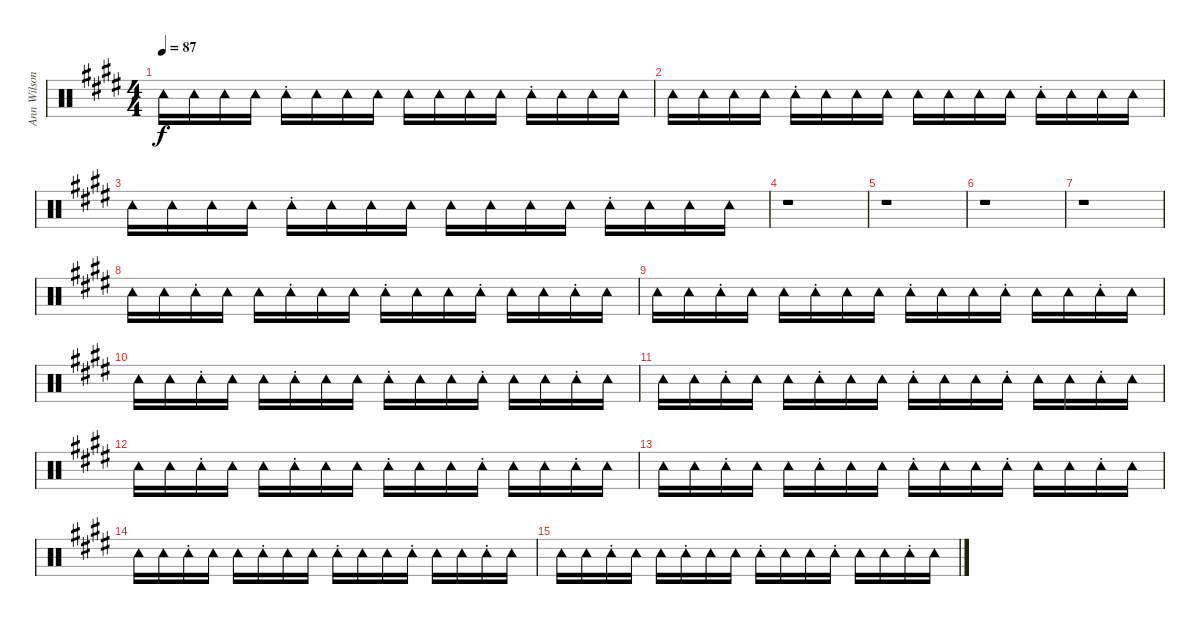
\track ("Ann Wilson Tambrine" "Ann Wilson") {instrument percussion}
\staff {score}
\articulation defaults
\ts (4 4)
\tempo 87
\clef neutral
\ks e "Tambourine (hit)".16{dy f} "Tambourine (hit)".16 "Tambourine (hit)".16 "Tambourine (hit)".16 "Tambourine (hit)"{st}.16 "Tambourine (hit)".16 "Tambourine (hit)".16 "Tambourine (hit)".16 "Tambourine (hit)".16 "Tambourine (hit)".16 "Tambourine (hit)".16 "Tambourine (hit)".16 "Tambourine (hit)"{st}.16 "Tambourine (hit)".16 "Tambourine (hit)".16 "Tambourine (hit)".16
|
"Tambourine (hit)".16 "Tambourine (hit)".16 "Tambourine (hit)".16 "Tambourine (hit)".16 "Tambourine (hit)"{st}.16 "Tambourine (hit)".16 "Tambourine (hit)".16 "Tambourine (hit)".16 "Tambourine (hit)".16 "Tambourine (hit)".16 "Tambourine (hit)".16 "Tambourine (hit)".16 "Tambourine (hit)"{st}.16 "Tambourine (hit)".16 "Tambourine (hit)".16 "Tambourine (hit)".16 |
"Tambourine (hit)".16 "Tambourine (hit)".16 "Tambourine (hit)".16 "Tambourine (hit)".16 "Tambourine (hit)"{st}.16 "Tambourine (hit)".16 "Tambourine (hit)".16 "Tambourine (hit)".16 "Tambourine (hit)".16 "Tambourine (hit)".16 "Tambourine (hit)".16 "Tambourine (hit)".16 "Tambourine (hit)"{st}.16 "Tambourine (hit)".16 "Tambourine (hit)".16 "Tambourine (hit)".16 |
r.1 |
r.1 |
r.1 |
r.1 |
"Tambourine (hit)".16 "Tambourine (hit)".16 "Tambourine (hit)"{st}.16 "Tambourine (hit)".16 "Tambourine (hit)".16 "Tambourine (hit)"{st}.16 "Tambourine (hit)".16 "Tambourine (hit)".16 "Tambourine (hit)"{st}.16 "Tambourine (hit)".16 "Tambourine (hit)".16 "Tambourine (hit)"{st}.16 "Tambourine (hit)".16 "Tambourine (hit)".16 "Tambourine (hit)"{st}.16 "Tambourine (hit)".16 |
"Tambourine (hit)".16 "Tambourine (hit)".16 "Tambourine (hit)"{st}.16 "Tambourine (hit)".16 "Tambourine (hit)".16 "Tambourine (hit)"{st}.16 "Tambourine (hit)".16 "Tambourine (hit)".16 "Tambourine (hit)"{st}.16 "Tambourine (hit)".16 "Tambourine (hit)".16 "Tambourine (hit)"{st}.16 "Tambourine (hit)".16 "Tambourine (hit)".16 "Tambourine (hit)"{st}.16 "Tambourine (hit)".16 |
"Tambourine (hit)".16 "Tambourine (hit)".16 "Tambourine (hit)"{st}.16 "Tambourine (hit)".16 "Tambourine (hit)".16 "Tambourine (hit)"{st}.16 "Tambourine (hit)".16 "Tambourine (hit)".16 "Tambourine (hit)"{st}.16 "Tambourine (hit)".16 "Tambourine (hit)".16 "Tambourine (hit)"{st}.16 "Tambourine (hit)".16 "Tambourine (hit)".16 "Tambourine (hit)"{st}.16 "Tambourine (hit)".16 |
"Tambourine (hit)".16 "Tambourine (hit)".16 "Tambourine (hit)"{st}.16 "Tambourine (hit)".16 "Tambourine (hit)".16 "Tambourine (hit)"{st}.16 "Tambourine (hit)".16 "Tambourine (hit)".16 "Tambourine (hit)"{st}.16 "Tambourine (hit)".16 "Tambourine (hit)".16 "Tambourine (hit)"{st}.16 "Tambourine (hit)".16 "Tambourine (hit)".16 "Tambourine (hit)"{st}.16 "Tambourine (hit)".16 |
"Tambourine (hit)".16 "Tambourine (hit)".16 "Tambourine (hit)"{st}.16 "Tambourine (hit)".16 "Tambourine (hit)".16 "Tambourine (hit)"{st}.16 "Tambourine (hit)".16 "Tambourine (hit)".16 "Tambourine (hit)"{st}.16 "Tambourine (hit)".16 "Tambourine (hit)".16 "Tambourine (hit)"{st}.16 "Tambourine (hit)".16 "Tambourine (hit)".16 "Tambourine (hit)"{st}.16 "Tambourine (hit)".16 |
"Tambourine (hit)".16 "Tambourine (hit)".16 "Tambourine (hit)"{st}.16 "Tambourine (hit)".16 "Tambourine (hit)".16 "Tambourine (hit)"{st}.16 "Tambourine (hit)".16 "Tambourine (hit)".16 "Tambourine (hit)"{st}.16 "Tambourine (hit)".16 "Tambourine (hit)".16 "Tambourine (hit)"{st}.16 "Tambourine (hit)".16 "Tambourine (hit)".16 "Tambourine (hit)"{st}.16 "Tambourine (hit)".16 |
"Tambourine (hit)".16 "Tambourine (hit)".16 "Tambourine (hit)"{st}.16 "Tambourine (hit)".16 "Tambourine (hit)".16 "Tambourine (hit)"{st}.16 "Tambourine (hit)".16 "Tambourine (hit)".16 "Tambourine (hit)"{st}.16 "Tambourine (hit)".16 "Tambourine (hit)".16 "Tambourine (hit)"{st}.16 "Tambourine (hit)".16 "Tambourine (hit)".16 "Tambourine (hit)"{st}.16 "Tambourine (hit)".16 |
"Tambourine (hit)".16 "Tambourine (hit)".16 "Tambourine (hit)"{st}.16 "Tambourine (hit)".16 "Tambourine (hit)".16 "Tambourine (hit)"{st}.16 "Tambourine (hit)".16 "Tambourine (hit)".16 "Tambourine (hit)"{st}.16 "Tambourine (hit)".16 "Tambourine (hit)".16 "Tambourine (hit)"{st}.16 "Tambourine (hit)".16 "Tambourine (hit)".16 "Tambourine (hit)"{st}.16 "Tambourine (hit)".16
